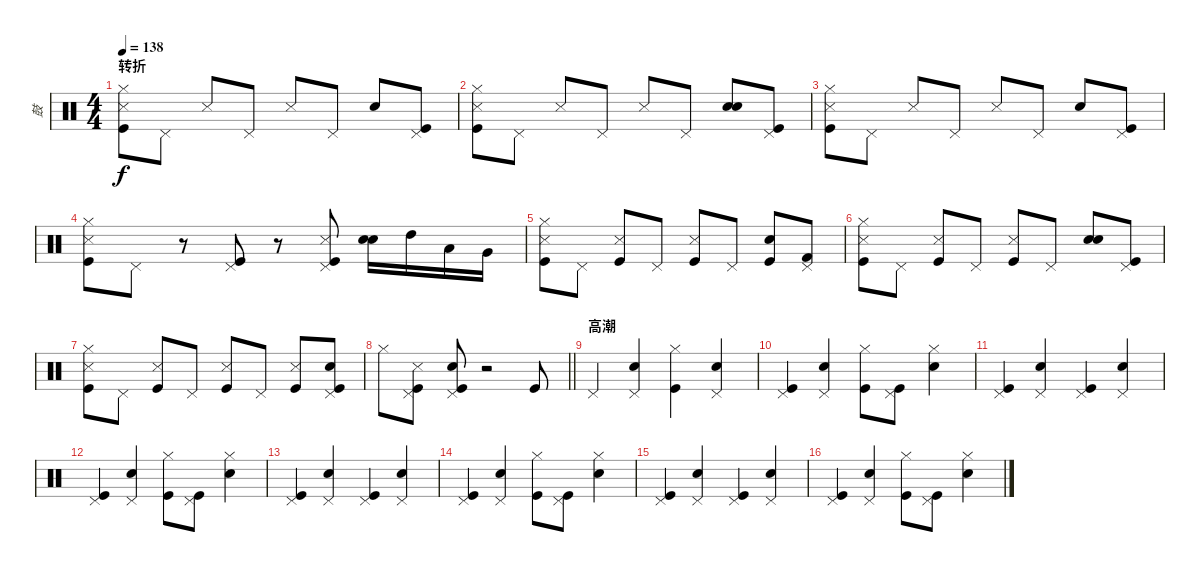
\track ("鼓" "鼓") {instrument percussion}
\staff {score}
\articulation defaults
\ts (4 4)
\section ("" "转折")
\tempo 138
\clef neutral
\ks c
("Snare (side stick) 3" "Kick (hit)" "Hi-Hat (closed)").8{dy f} "Pedal Hi-Hat (hit)".8 "Snare (side stick) 3".8 "Pedal Hi-Hat (hit)".8 "Snare (side stick) 3".8 "Pedal Hi-Hat (hit)".8 "Hand Clap (hit)".8 ("Kick (hit)" "Pedal Hi-Hat (hit)").8 |
("Snare (side stick) 3" "Kick (hit)" "Hi-Hat (closed)").8 "Pedal Hi-Hat (hit)".8 "Snare (side stick) 3".8 "Pedal Hi-Hat (hit)".8 "Snare (side stick) 3".8 "Pedal Hi-Hat (hit)".8 ("Hand Clap (hit)" "Snare (hit) 2").8 ("Kick (hit)" "Pedal Hi-Hat (hit)").8 |
("Snare (side stick) 3" "Kick (hit)" "Hi-Hat (closed)").8 "Pedal Hi-Hat (hit)".8 "Snare (side stick) 3".8 "Pedal Hi-Hat (hit)".8 "Snare (side stick) 3".8 "Pedal Hi-Hat (hit)".8 "Hand Clap (hit)".8 ("Kick (hit)" "Pedal Hi-Hat (hit)").8 |
("Snare (side stick) 3" "Kick (hit)" "Hi-Hat (closed)").8 "Pedal Hi-Hat (hit)".8 r.8 ("Kick (hit)" "Pedal Hi-Hat (hit)").8 r.8 ("Snare (side stick) 3" "Kick (hit)" "Pedal Hi-Hat (hit)").8 ("Hand Clap (hit)" "Electric Snare (hit)").16 "High Tom (hit)".16 "Low Tom (hit)".16 "Very Low Tom (hit)".16 |
("Snare (side stick) 3" "Kick (hit)" "Hi-Hat (closed)").8 "Pedal Hi-Hat (hit)".8 ("Snare (side stick) 3" "Kick (hit)").8 "Pedal Hi-Hat (hit)".8 ("Snare (side stick) 3" "Kick (hit)").8 "Pedal Hi-Hat (hit)".8 ("Hand Clap (hit)" "Kick (hit)").8 ("Kick (hit) 2" "Pedal Hi-Hat (hit)").8 |
("Snare (side stick) 3" "Kick (hit)" "Hi-Hat (closed)").8 "Pedal Hi-Hat (hit)".8 ("Snare (side stick) 3" "Kick (hit)").8 "Pedal Hi-Hat (hit)".8 ("Snare (side stick) 3" "Kick (hit)").8 "Pedal Hi-Hat (hit)".8 ("Hand Clap (hit)" "Snare (hit) 2").8 ("Kick (hit)" "Pedal Hi-Hat (hit)").8 |
("Snare (side stick) 3" "Kick (hit)" "Hi-Hat (closed)").8 "Pedal Hi-Hat (hit)".8 ("Snare (side stick) 3" "Kick (hit)").8 "Pedal Hi-Hat (hit)".8 ("Snare (side stick) 3" "Kick (hit)").8 "Pedal Hi-Hat (hit)".8 ("Snare (side stick) 3" "Kick (hit)").8 ("Hand Clap (hit)" "Kick (hit)" "Pedal Hi-Hat (hit)").8 |
\barLineRight lightlight "Hi-Hat (closed)".8
("Snare (side stick) 3" "Kick (hit)" "Pedal Hi-Hat (hit)").8 ("Hand Clap (hit)" "Kick (hit)" "Pedal Hi-Hat (hit)").8 r.2 "Kick (hit)".8 |
\section ("" "高潮")
"Pedal Hi-Hat (hit)".4 ("Snare (hit) 2" "Pedal Hi-Hat (hit)").4 ("Kick (hit)" "Hi-Hat (closed)").4 ("Snare (hit) 2" "Pedal Hi-Hat (hit)").4 |
("Kick (hit)" "Pedal Hi-Hat (hit)").4 ("Snare (hit) 2" "Pedal Hi-Hat (hit)").4 ("Kick (hit)" "Hi-Hat (closed)").8 ("Kick (hit)" "Pedal Hi-Hat (hit)").8 ("Snare (hit) 2" "Hi-Hat (closed)").4 |
("Kick (hit)" "Pedal Hi-Hat (hit)").4 ("Snare (hit) 2" "Pedal Hi-Hat (hit)").4 ("Kick (hit)" "Pedal Hi-Hat (hit)").4 ("Snare (hit) 2" "Pedal Hi-Hat (hit)").4 |
("Kick (hit)" "Pedal Hi-Hat (hit)").4 ("Snare (hit) 2" "Pedal Hi-Hat (hit)").4 ("Kick (hit)" "Hi-Hat (closed)").8 ("Kick (hit)" "Pedal Hi-Hat (hit)").8 ("Snare (hit) 2" "Hi-Hat (closed)").4 |
("Kick (hit)" "Pedal Hi-Hat (hit)").4 ("Snare (hit) 2" "Pedal Hi-Hat (hit)").4 ("Kick (hit)" "Pedal Hi-Hat (hit)").4 ("Snare (hit) 2" "Pedal Hi-Hat (hit)").4 |
("Kick (hit)" "Pedal Hi-Hat (hit)").4 ("Snare (hit) 2" "Pedal Hi-Hat (hit)").4 ("Kick (hit)" "Hi-Hat (closed)").8 ("Kick (hit)" "Pedal Hi-Hat (hit)").8 ("Snare (hit) 2" "Hi-Hat (closed)").4 |
("Kick (hit)" "Pedal Hi-Hat (hit)").4 ("Snare (hit) 2" "Pedal Hi-Hat (hit)").4 ("Kick (hit)" "Pedal Hi-Hat (hit)").4 ("Snare (hit) 2" "Pedal Hi-Hat (hit)").4 |
("Kick (hit)" "Pedal Hi-Hat (hit)").4 ("Snare (hit) 2" "Pedal Hi-Hat (hit)").4 ("Kick (hit)" "Hi-Hat (closed)").8 ("Kick (hit)" "Pedal Hi-Hat (hit)").8 ("Snare (hit) 2" "Hi-Hat (closed)").4
